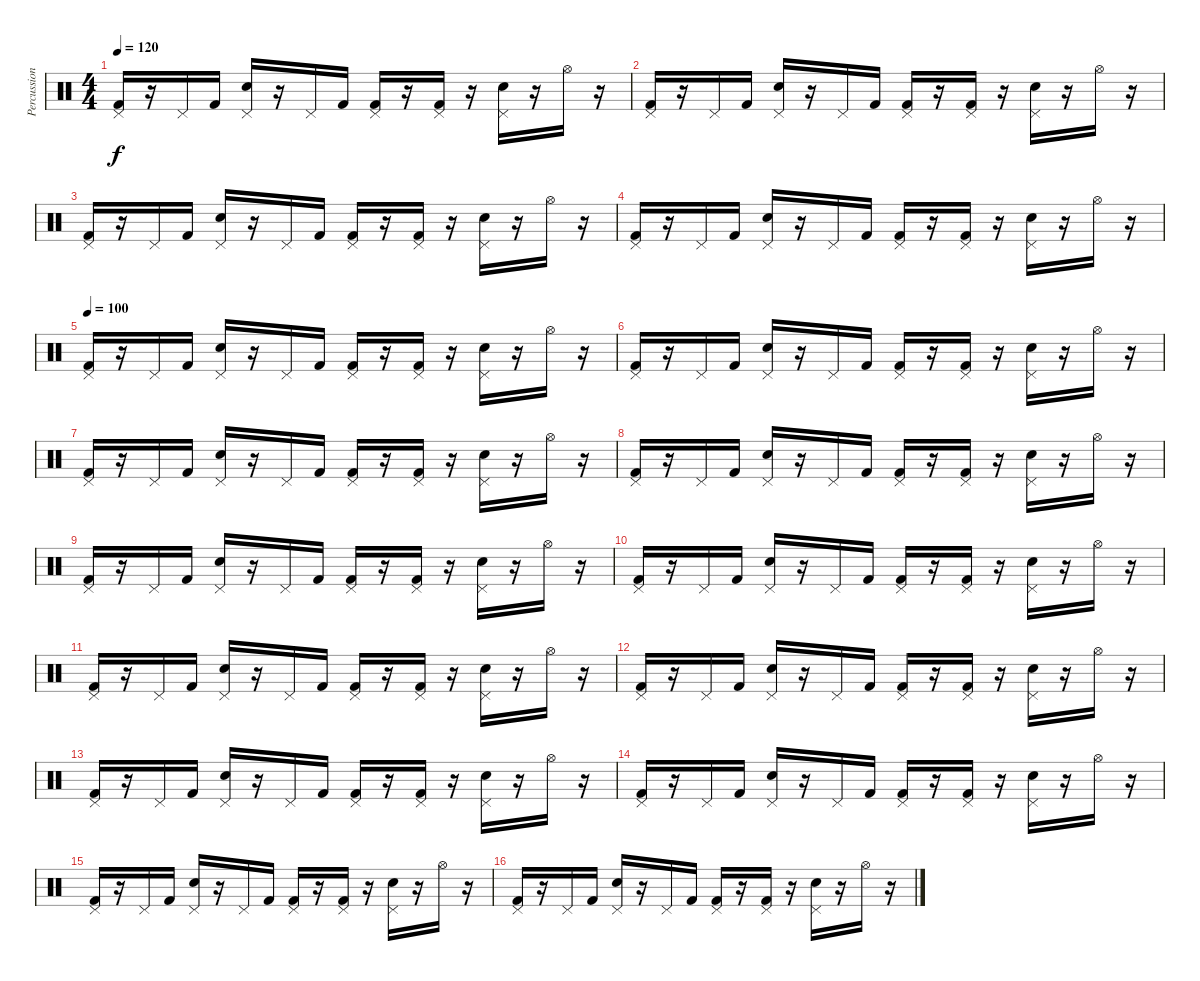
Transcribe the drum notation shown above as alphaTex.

\track ("Percussion" "Percussion") {instrument percussion}
\staff {score}
\articulation defaults
\ts (4 4)
\tempo 120
\clef neutral
\ks c
("Pedal Hi-Hat (hit)" "Kick (hit) 2").16{dy f} r.16 "Pedal Hi-Hat (hit)".16 "Kick (hit) 2".16 ("Pedal Hi-Hat (hit)" "Electric Snare (hit)").16 r.16 "Pedal Hi-Hat (hit)".16 "Kick (hit) 2".16 ("Pedal Hi-Hat (hit)" "Kick (hit) 2").16 r.16 ("Pedal Hi-Hat (hit)" "Kick (hit) 2").16 r.16 ("Pedal Hi-Hat (hit)" "Electric Snare (hit)").16 r.16 "Hi-Hat (open)".16 r.16 |
("Pedal Hi-Hat (hit)" "Kick (hit) 2").16 r.16 "Pedal Hi-Hat (hit)".16 "Kick (hit) 2".16 ("Pedal Hi-Hat (hit)" "Electric Snare (hit)").16 r.16 "Pedal Hi-Hat (hit)".16 "Kick (hit) 2".16 ("Pedal Hi-Hat (hit)" "Kick (hit) 2").16 r.16 ("Pedal Hi-Hat (hit)" "Kick (hit) 2").16 r.16 ("Pedal Hi-Hat (hit)" "Electric Snare (hit)").16 r.16 "Hi-Hat (open)".16 r.16 |
("Pedal Hi-Hat (hit)" "Kick (hit) 2").16 r.16 "Pedal Hi-Hat (hit)".16 "Kick (hit) 2".16 ("Pedal Hi-Hat (hit)" "Electric Snare (hit)").16 r.16 "Pedal Hi-Hat (hit)".16 "Kick (hit) 2".16 ("Pedal Hi-Hat (hit)" "Kick (hit) 2").16 r.16 ("Pedal Hi-Hat (hit)" "Kick (hit) 2").16 r.16 ("Pedal Hi-Hat (hit)" "Electric Snare (hit)").16 r.16 "Hi-Hat (open)".16 r.16 |
("Pedal Hi-Hat (hit)" "Kick (hit) 2").16 r.16 "Pedal Hi-Hat (hit)".16 "Kick (hit) 2".16 ("Pedal Hi-Hat (hit)" "Electric Snare (hit)").16 r.16 "Pedal Hi-Hat (hit)".16 "Kick (hit) 2".16 ("Pedal Hi-Hat (hit)" "Kick (hit) 2").16 r.16 ("Pedal Hi-Hat (hit)" "Kick (hit) 2").16 r.16 ("Pedal Hi-Hat (hit)" "Electric Snare (hit)").16 r.16 "Hi-Hat (open)".16 r.16 |
\tempo 100
("Pedal Hi-Hat (hit)" "Kick (hit) 2").16 r.16 "Pedal Hi-Hat (hit)".16 "Kick (hit) 2".16 ("Pedal Hi-Hat (hit)" "Electric Snare (hit)").16 r.16 "Pedal Hi-Hat (hit)".16 "Kick (hit) 2".16 ("Pedal Hi-Hat (hit)" "Kick (hit) 2").16 r.16 ("Pedal Hi-Hat (hit)" "Kick (hit) 2").16 r.16 ("Pedal Hi-Hat (hit)" "Electric Snare (hit)").16 r.16 "Hi-Hat (open)".16 r.16 |
("Pedal Hi-Hat (hit)" "Kick (hit) 2").16 r.16 "Pedal Hi-Hat (hit)".16 "Kick (hit) 2".16 ("Pedal Hi-Hat (hit)" "Electric Snare (hit)").16 r.16 "Pedal Hi-Hat (hit)".16 "Kick (hit) 2".16 ("Pedal Hi-Hat (hit)" "Kick (hit) 2").16 r.16 ("Pedal Hi-Hat (hit)" "Kick (hit) 2").16 r.16 ("Pedal Hi-Hat (hit)" "Electric Snare (hit)").16 r.16 "Hi-Hat (open)".16 r.16 |
("Pedal Hi-Hat (hit)" "Kick (hit) 2").16 r.16 "Pedal Hi-Hat (hit)".16 "Kick (hit) 2".16 ("Pedal Hi-Hat (hit)" "Electric Snare (hit)").16 r.16 "Pedal Hi-Hat (hit)".16 "Kick (hit) 2".16 ("Pedal Hi-Hat (hit)" "Kick (hit) 2").16 r.16 ("Pedal Hi-Hat (hit)" "Kick (hit) 2").16 r.16 ("Pedal Hi-Hat (hit)" "Electric Snare (hit)").16 r.16 "Hi-Hat (open)".16 r.16 |
("Pedal Hi-Hat (hit)" "Kick (hit) 2").16 r.16 "Pedal Hi-Hat (hit)".16 "Kick (hit) 2".16 ("Pedal Hi-Hat (hit)" "Electric Snare (hit)").16 r.16 "Pedal Hi-Hat (hit)".16 "Kick (hit) 2".16 ("Pedal Hi-Hat (hit)" "Kick (hit) 2").16 r.16 ("Pedal Hi-Hat (hit)" "Kick (hit) 2").16 r.16 ("Pedal Hi-Hat (hit)" "Electric Snare (hit)").16 r.16 "Hi-Hat (open)".16 r.16 |
("Pedal Hi-Hat (hit)" "Kick (hit) 2").16 r.16 "Pedal Hi-Hat (hit)".16 "Kick (hit) 2".16 ("Pedal Hi-Hat (hit)" "Electric Snare (hit)").16 r.16 "Pedal Hi-Hat (hit)".16 "Kick (hit) 2".16 ("Pedal Hi-Hat (hit)" "Kick (hit) 2").16 r.16 ("Pedal Hi-Hat (hit)" "Kick (hit) 2").16 r.16 ("Pedal Hi-Hat (hit)" "Electric Snare (hit)").16 r.16 "Hi-Hat (open)".16 r.16 |
("Pedal Hi-Hat (hit)" "Kick (hit) 2").16 r.16 "Pedal Hi-Hat (hit)".16 "Kick (hit) 2".16 ("Pedal Hi-Hat (hit)" "Electric Snare (hit)").16 r.16 "Pedal Hi-Hat (hit)".16 "Kick (hit) 2".16 ("Pedal Hi-Hat (hit)" "Kick (hit) 2").16 r.16 ("Pedal Hi-Hat (hit)" "Kick (hit) 2").16 r.16 ("Pedal Hi-Hat (hit)" "Electric Snare (hit)").16 r.16 "Hi-Hat (open)".16 r.16 |
("Pedal Hi-Hat (hit)" "Kick (hit) 2").16 r.16 "Pedal Hi-Hat (hit)".16 "Kick (hit) 2".16 ("Pedal Hi-Hat (hit)" "Electric Snare (hit)").16 r.16 "Pedal Hi-Hat (hit)".16 "Kick (hit) 2".16 ("Pedal Hi-Hat (hit)" "Kick (hit) 2").16 r.16 ("Pedal Hi-Hat (hit)" "Kick (hit) 2").16 r.16 ("Pedal Hi-Hat (hit)" "Electric Snare (hit)").16 r.16 "Hi-Hat (open)".16 r.16 |
("Pedal Hi-Hat (hit)" "Kick (hit) 2").16 r.16 "Pedal Hi-Hat (hit)".16 "Kick (hit) 2".16 ("Pedal Hi-Hat (hit)" "Electric Snare (hit)").16 r.16 "Pedal Hi-Hat (hit)".16 "Kick (hit) 2".16 ("Pedal Hi-Hat (hit)" "Kick (hit) 2").16 r.16 ("Pedal Hi-Hat (hit)" "Kick (hit) 2").16 r.16 ("Pedal Hi-Hat (hit)" "Electric Snare (hit)").16 r.16 "Hi-Hat (open)".16 r.16 |
("Pedal Hi-Hat (hit)" "Kick (hit) 2").16 r.16 "Pedal Hi-Hat (hit)".16 "Kick (hit) 2".16 ("Pedal Hi-Hat (hit)" "Electric Snare (hit)").16 r.16 "Pedal Hi-Hat (hit)".16 "Kick (hit) 2".16 ("Pedal Hi-Hat (hit)" "Kick (hit) 2").16 r.16 ("Pedal Hi-Hat (hit)" "Kick (hit) 2").16 r.16 ("Pedal Hi-Hat (hit)" "Electric Snare (hit)").16 r.16 "Hi-Hat (open)".16 r.16 |
("Pedal Hi-Hat (hit)" "Kick (hit) 2").16 r.16 "Pedal Hi-Hat (hit)".16 "Kick (hit) 2".16 ("Pedal Hi-Hat (hit)" "Electric Snare (hit)").16 r.16 "Pedal Hi-Hat (hit)".16 "Kick (hit) 2".16 ("Pedal Hi-Hat (hit)" "Kick (hit) 2").16 r.16 ("Pedal Hi-Hat (hit)" "Kick (hit) 2").16 r.16 ("Pedal Hi-Hat (hit)" "Electric Snare (hit)").16 r.16 "Hi-Hat (open)".16 r.16 |
("Pedal Hi-Hat (hit)" "Kick (hit) 2").16 r.16 "Pedal Hi-Hat (hit)".16 "Kick (hit) 2".16 ("Pedal Hi-Hat (hit)" "Electric Snare (hit)").16 r.16 "Pedal Hi-Hat (hit)".16 "Kick (hit) 2".16 ("Pedal Hi-Hat (hit)" "Kick (hit) 2").16 r.16 ("Pedal Hi-Hat (hit)" "Kick (hit) 2").16 r.16 ("Pedal Hi-Hat (hit)" "Electric Snare (hit)").16 r.16 "Hi-Hat (open)".16 r.16 |
("Pedal Hi-Hat (hit)" "Kick (hit) 2").16 r.16 "Pedal Hi-Hat (hit)".16 "Kick (hit) 2".16 ("Pedal Hi-Hat (hit)" "Electric Snare (hit)").16 r.16 "Pedal Hi-Hat (hit)".16 "Kick (hit) 2".16 ("Pedal Hi-Hat (hit)" "Kick (hit) 2").16 r.16 ("Pedal Hi-Hat (hit)" "Kick (hit) 2").16 r.16 ("Pedal Hi-Hat (hit)" "Electric Snare (hit)").16 r.16 "Hi-Hat (open)".16 r.16
